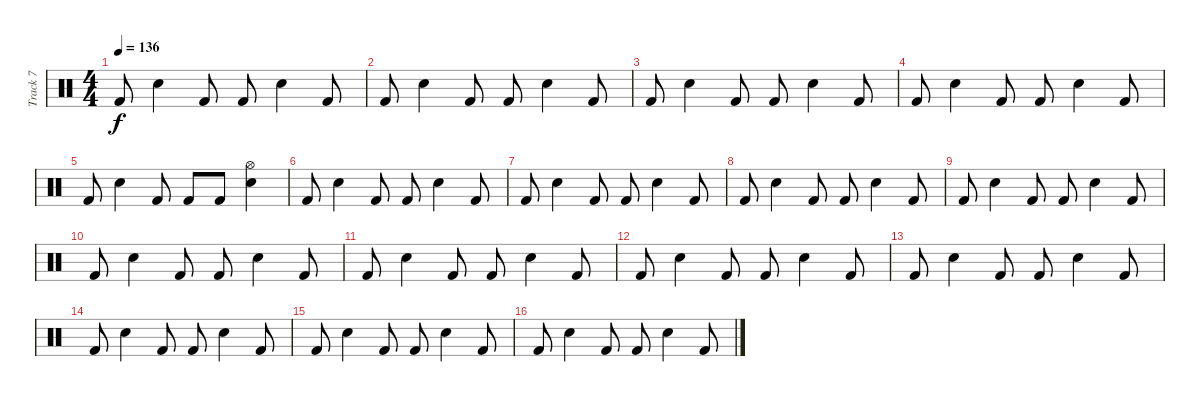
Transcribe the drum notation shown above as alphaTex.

\track ("Track 7" "Track 7") {instrument percussion}
\staff {score}
\articulation defaults
\ts (4 4)
\tempo 136
\clef neutral
\ks c "Kick (hit) 2".8{dy f} "Electric Snare (hit)".4 "Kick (hit) 2".8 "Kick (hit) 2".8 "Electric Snare (hit)".4 "Kick (hit) 2".8
|
"Kick (hit) 2".8 "Electric Snare (hit)".4 "Kick (hit) 2".8 "Kick (hit) 2".8 "Electric Snare (hit)".4 "Kick (hit) 2".8 |
"Kick (hit) 2".8 "Electric Snare (hit)".4 "Kick (hit) 2".8 "Kick (hit) 2".8 "Electric Snare (hit)".4 "Kick (hit) 2".8 |
"Kick (hit) 2".8 "Electric Snare (hit)".4 "Kick (hit) 2".8 "Kick (hit) 2".8 "Electric Snare (hit)".4 "Kick (hit) 2".8 |
"Kick (hit) 2".8 "Electric Snare (hit)".4 "Kick (hit) 2".8 "Kick (hit) 2".8 "Kick (hit) 2".8 ("Hi-Hat (open)" "Electric Snare (hit)").4 |
"Kick (hit) 2".8 "Electric Snare (hit)".4 "Kick (hit) 2".8 "Kick (hit) 2".8 "Electric Snare (hit)".4 "Kick (hit) 2".8 |
"Kick (hit) 2".8 "Electric Snare (hit)".4 "Kick (hit) 2".8 "Kick (hit) 2".8 "Electric Snare (hit)".4 "Kick (hit) 2".8 |
"Kick (hit) 2".8 "Electric Snare (hit)".4 "Kick (hit) 2".8 "Kick (hit) 2".8 "Electric Snare (hit)".4 "Kick (hit) 2".8 |
"Kick (hit) 2".8 "Electric Snare (hit)".4 "Kick (hit) 2".8 "Kick (hit) 2".8 "Electric Snare (hit)".4 "Kick (hit) 2".8 |
"Kick (hit) 2".8 "Electric Snare (hit)".4 "Kick (hit) 2".8 "Kick (hit) 2".8 "Electric Snare (hit)".4 "Kick (hit) 2".8 |
"Kick (hit) 2".8 "Electric Snare (hit)".4 "Kick (hit) 2".8 "Kick (hit) 2".8 "Electric Snare (hit)".4 "Kick (hit) 2".8 |
"Kick (hit) 2".8 "Electric Snare (hit)".4 "Kick (hit) 2".8 "Kick (hit) 2".8 "Electric Snare (hit)".4 "Kick (hit) 2".8 |
"Kick (hit) 2".8 "Electric Snare (hit)".4 "Kick (hit) 2".8 "Kick (hit) 2".8 "Electric Snare (hit)".4 "Kick (hit) 2".8 |
"Kick (hit) 2".8 "Electric Snare (hit)".4 "Kick (hit) 2".8 "Kick (hit) 2".8 "Electric Snare (hit)".4 "Kick (hit) 2".8 |
"Kick (hit) 2".8 "Electric Snare (hit)".4 "Kick (hit) 2".8 "Kick (hit) 2".8 "Electric Snare (hit)".4 "Kick (hit) 2".8 |
"Kick (hit) 2".8 "Electric Snare (hit)".4 "Kick (hit) 2".8 "Kick (hit) 2".8 "Electric Snare (hit)".4 "Kick (hit) 2".8
